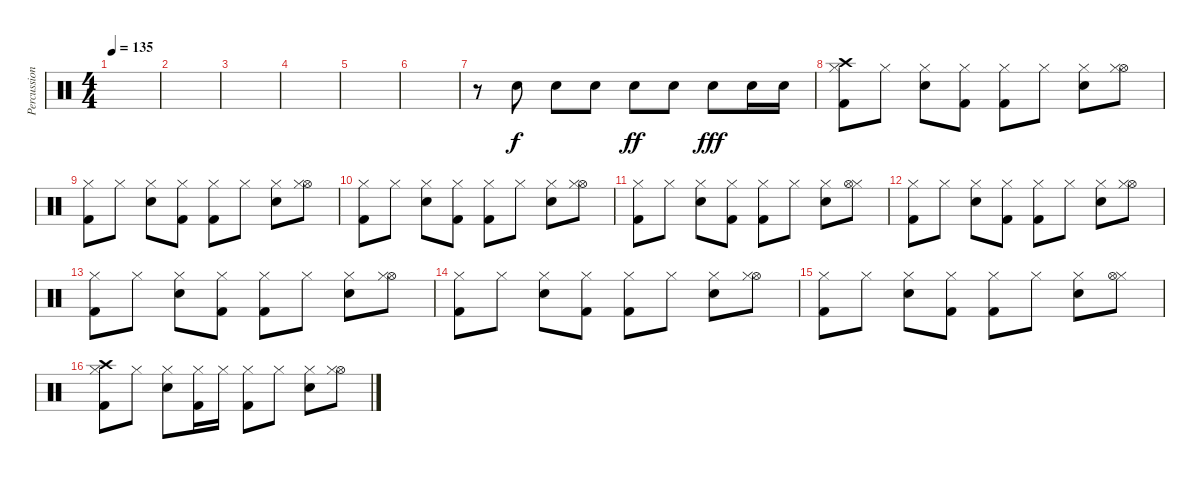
\track ("Percussion" "Percussion") {instrument percussion}
\staff {score}
\articulation defaults
\ts (4 4)
\tempo 135
\clef neutral
\ks c
|
|
|
|
|
|
r.8 "Snare (hit) 2".8 "Snare (hit) 2".8{dy f} "Snare (hit) 2".8 "Snare (hit) 2".8{dy ff} "Snare (hit) 2".8 "Snare (hit) 2".8{dy fff} "Snare (hit) 2".16 "Snare (hit) 2".16 |
("Crash high (hit)" "Hi-Hat (closed)" "Kick (hit) 2").8 "Hi-Hat (closed)".8 ("Hi-Hat (closed)" "Snare (hit) 2").8 ("Hi-Hat (closed)" "Kick (hit) 2").8 ("Hi-Hat (closed)" "Kick (hit) 2").8 "Hi-Hat (closed)".8 ("Snare (hit) 2" "Hi-Hat (closed)").8 ("Hi-Hat (open)" "Hi-Hat (closed)").8 |
("Hi-Hat (closed)" "Kick (hit) 2").8 "Hi-Hat (closed)".8 ("Hi-Hat (closed)" "Snare (hit) 2").8 ("Kick (hit) 2" "Hi-Hat (closed)").8 ("Hi-Hat (closed)" "Kick (hit) 2").8 "Hi-Hat (closed)".8 ("Hi-Hat (closed)" "Snare (hit) 2").8 ("Hi-Hat (open)" "Hi-Hat (closed)").8 |
("Hi-Hat (closed)" "Kick (hit) 2").8 "Hi-Hat (closed)".8 ("Snare (hit) 2" "Hi-Hat (closed)").8 ("Hi-Hat (closed)" "Kick (hit) 2").8 ("Hi-Hat (closed)" "Kick (hit) 2").8 "Hi-Hat (closed)".8 ("Hi-Hat (closed)" "Snare (hit) 2").8 ("Hi-Hat (open)" "Hi-Hat (closed)").8 |
("Hi-Hat (closed)" "Kick (hit) 2").8 "Hi-Hat (closed)".8 ("Hi-Hat (closed)" "Snare (hit) 2").8 ("Kick (hit) 2" "Hi-Hat (closed)").8 ("Hi-Hat (closed)" "Kick (hit) 2").8 "Hi-Hat (closed)".8 ("Snare (hit) 2" "Hi-Hat (closed)").8 ("Hi-Hat (closed)" "Hi-Hat (open)").8 |
("Hi-Hat (closed)" "Kick (hit) 2").8 "Hi-Hat (closed)".8 ("Hi-Hat (closed)" "Snare (hit) 2").8 ("Hi-Hat (closed)" "Kick (hit) 2").8 ("Hi-Hat (closed)" "Kick (hit) 2").8 "Hi-Hat (closed)".8 ("Snare (hit) 2" "Hi-Hat (closed)").8 ("Hi-Hat (open)" "Hi-Hat (closed)").8 |
("Hi-Hat (closed)" "Kick (hit) 2").8 "Hi-Hat (closed)".8 ("Hi-Hat (closed)" "Snare (hit) 2").8 ("Kick (hit) 2" "Hi-Hat (closed)").8 ("Hi-Hat (closed)" "Kick (hit) 2").8 "Hi-Hat (closed)".8 ("Hi-Hat (closed)" "Snare (hit) 2").8 ("Hi-Hat (open)" "Hi-Hat (closed)").8 |
("Hi-Hat (closed)" "Kick (hit) 2").8 "Hi-Hat (closed)".8 ("Snare (hit) 2" "Hi-Hat (closed)").8 ("Hi-Hat (closed)" "Kick (hit) 2").8 ("Hi-Hat (closed)" "Kick (hit) 2").8 "Hi-Hat (closed)".8 ("Hi-Hat (closed)" "Snare (hit) 2").8 ("Hi-Hat (open)" "Hi-Hat (closed)").8 |
("Hi-Hat (closed)" "Kick (hit) 2").8 "Hi-Hat (closed)".8 ("Hi-Hat (closed)" "Snare (hit) 2").8 ("Kick (hit) 2" "Hi-Hat (closed)").8 ("Hi-Hat (closed)" "Kick (hit) 2").8 "Hi-Hat (closed)".8 ("Snare (hit) 2" "Hi-Hat (closed)").8 ("Hi-Hat (closed)" "Hi-Hat (open)").8 |
("Crash high (hit)" "Hi-Hat (closed)" "Kick (hit) 2").8 "Hi-Hat (closed)".8 ("Hi-Hat (closed)" "Snare (hit) 2").8 ("Hi-Hat (closed)" "Kick (hit) 2").16 "Hi-Hat (closed)".16 ("Hi-Hat (closed)" "Kick (hit) 2").8 "Hi-Hat (closed)".8 ("Snare (hit) 2" "Hi-Hat (closed)").8 ("Hi-Hat (open)" "Hi-Hat (closed)").8
